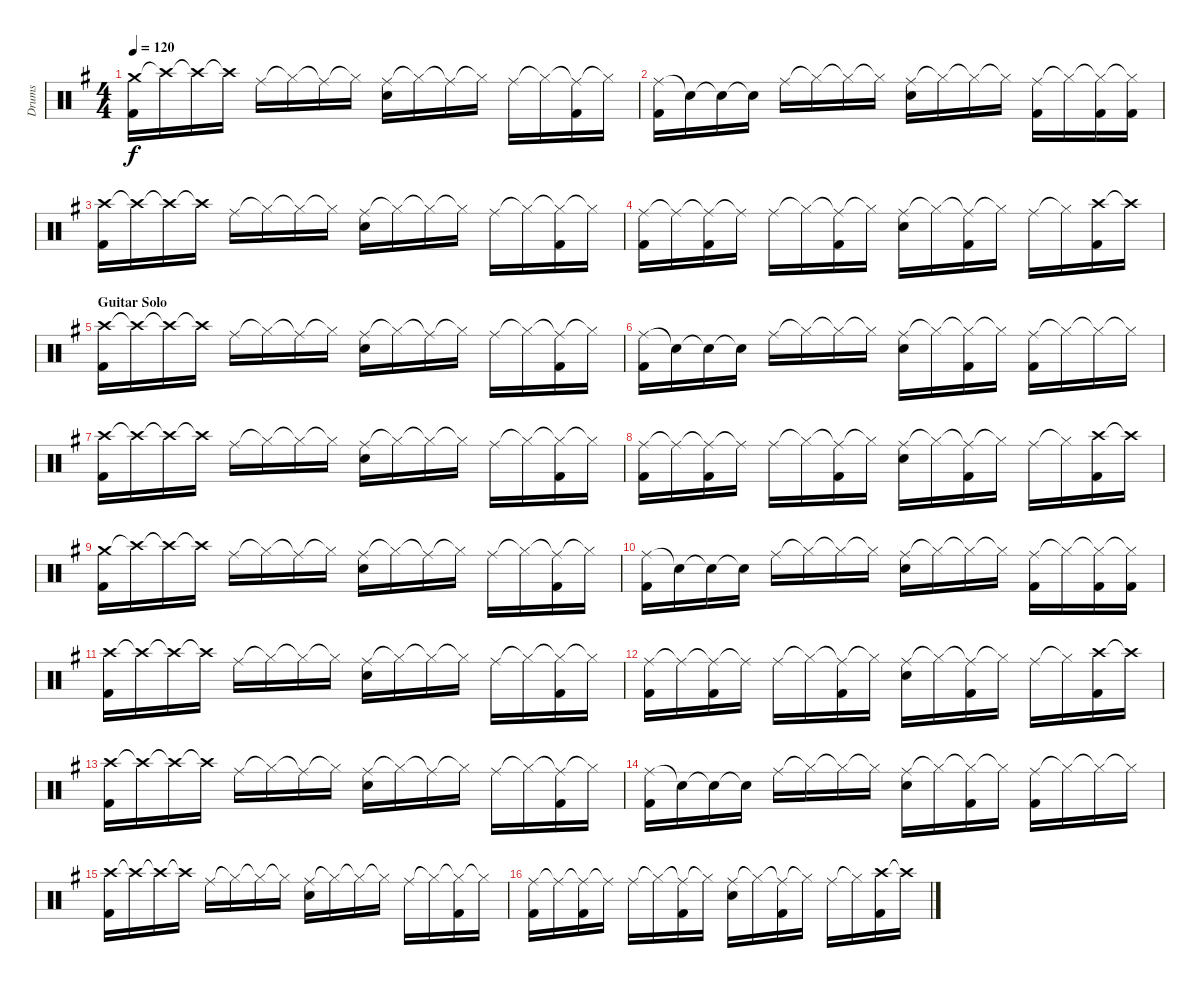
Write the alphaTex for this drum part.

\track ("Drums" "Drums") {instrument percussion}
\staff {score}
\articulation defaults
\ts (4 4)
\tempo 120
\clef neutral
\ks g
("Crash medium (hit)" "Kick (hit) 2").16{dy f} "Crash high (hit)"{t}.16 "Crash high (hit)"{t}.16 "Crash high (hit)"{t}.16 "Ride (middle)".16 "Hi-Hat (closed)"{t}.16 "Ride (middle)"{t}.16 "Hi-Hat (closed)"{t}.16 ("Ride (middle)" "Snare (hit) 2").16 "Hi-Hat (closed)"{t}.16 "Ride (middle)"{t}.16 "Hi-Hat (closed)"{t}.16 "Ride (middle)".16 "Hi-Hat (closed)"{t}.16 ("Ride (middle)"{t} "Kick (hit) 2").16 "Hi-Hat (closed)"{t}.16 |
("Ride (middle)" "Kick (hit) 2").16 "Snare (hit)"{t}.16 "Snare (hit)"{t}.16 "Snare (hit)"{t}.16 "Ride (middle)".16 "Hi-Hat (closed)"{t}.16 "Hi-Hat (closed)"{t}.16 "Hi-Hat (closed)"{t}.16 ("Ride (middle)" "Snare (hit) 2").16 "Hi-Hat (closed)"{t}.16 "Hi-Hat (closed)"{t}.16 "Hi-Hat (closed)"{t}.16 ("Ride (middle)" "Kick (hit) 2").16 "Hi-Hat (closed)"{t}.16 ("Hi-Hat (closed)"{t} "Kick (hit) 2").16 ("Hi-Hat (closed)"{t} "Kick (hit) 2").16 |
("Crash high (hit)" "Kick (hit) 2").16 "Crash high (hit)"{t}.16 "Crash high (hit)"{t}.16 "Crash high (hit)"{t}.16 "Ride (middle)".16 "Hi-Hat (closed)"{t}.16 "Hi-Hat (closed)"{t}.16 "Hi-Hat (closed)"{t}.16 ("Ride (middle)" "Snare (hit) 2").16 "Hi-Hat (closed)"{t}.16 "Hi-Hat (closed)"{t}.16 "Hi-Hat (closed)"{t}.16 "Ride (middle)".16 "Hi-Hat (closed)"{t}.16 ("Hi-Hat (closed)"{t} "Kick (hit) 2").16 "Hi-Hat (closed)"{t}.16 |
("Ride (middle)" "Kick (hit) 2").16 "Ride (middle)"{t}.16 ("Ride (middle)"{t} "Kick (hit) 2").16 "Ride (middle)"{t}.16 "Ride (middle)".16 "Hi-Hat (closed)"{t}.16 ("Ride (middle)"{t} "Kick (hit) 2").16 "Hi-Hat (closed)"{t}.16 ("Ride (middle)" "Snare (hit) 2").16 "Hi-Hat (closed)"{t}.16 ("Ride (middle)"{t} "Kick (hit) 2").16 "Hi-Hat (closed)"{t}.16 "Ride (middle)".16 "Hi-Hat (closed)"{t}.16 ("Crash high (hit)" "Kick (hit) 2").16 "Crash high (hit)"{t}.16 |
\section ("" "Guitar Solo")
("Crash high (hit)" "Kick (hit) 2").16 "Crash high (hit)"{t}.16 "Crash high (hit)"{t}.16 "Crash high (hit)"{t}.16 "Ride (middle)".16 "Hi-Hat (closed)"{t}.16 "Ride (middle)"{t}.16 "Hi-Hat (closed)"{t}.16 ("Ride (middle)" "Snare (hit) 2").16 "Hi-Hat (closed)"{t}.16 "Ride (middle)"{t}.16 "Hi-Hat (closed)"{t}.16 "Ride (middle)".16 "Hi-Hat (closed)"{t}.16 ("Ride (middle)"{t} "Kick (hit) 2").16 "Hi-Hat (closed)"{t}.16 |
("Ride (middle)" "Kick (hit) 2").16 "Snare (hit)"{t}.16 "Snare (hit)"{t}.16 "Snare (hit)"{t}.16 "Ride (middle)".16 "Hi-Hat (closed)"{t}.16 "Hi-Hat (closed)"{t}.16 "Hi-Hat (closed)"{t}.16 ("Ride (middle)" "Snare (hit) 2").16 "Hi-Hat (closed)"{t}.16 ("Hi-Hat (closed)"{t} "Kick (hit) 2").16 "Hi-Hat (closed)"{t}.16 ("Ride (middle)" "Kick (hit) 2").16 "Hi-Hat (closed)"{t}.16 "Hi-Hat (closed)"{t}.16 "Hi-Hat (closed)"{t}.16 |
("Crash high (hit)" "Kick (hit) 2").16 "Crash high (hit)"{t}.16 "Crash high (hit)"{t}.16 "Crash high (hit)"{t}.16 "Ride (middle)".16 "Hi-Hat (closed)"{t}.16 "Hi-Hat (closed)"{t}.16 "Hi-Hat (closed)"{t}.16 ("Ride (middle)" "Snare (hit) 2").16 "Hi-Hat (closed)"{t}.16 "Hi-Hat (closed)"{t}.16 "Hi-Hat (closed)"{t}.16 "Ride (middle)".16 "Hi-Hat (closed)"{t}.16 ("Hi-Hat (closed)"{t} "Kick (hit) 2").16 "Hi-Hat (closed)"{t}.16 |
("Ride (middle)" "Kick (hit) 2").16 "Ride (middle)"{t}.16 ("Ride (middle)"{t} "Kick (hit) 2").16 "Ride (middle)"{t}.16 "Ride (middle)".16 "Hi-Hat (closed)"{t}.16 ("Ride (middle)"{t} "Kick (hit) 2").16 "Hi-Hat (closed)"{t}.16 ("Ride (middle)" "Snare (hit) 2").16 "Hi-Hat (closed)"{t}.16 ("Ride (middle)"{t} "Kick (hit) 2").16 "Hi-Hat (closed)"{t}.16 "Ride (middle)".16 "Hi-Hat (closed)"{t}.16 ("Crash high (hit)" "Kick (hit) 2").16 "Crash high (hit)"{t}.16 |
("Crash medium (hit)" "Kick (hit) 2").16 "Crash high (hit)"{t}.16 "Crash high (hit)"{t}.16 "Crash high (hit)"{t}.16 "Ride (middle)".16 "Hi-Hat (closed)"{t}.16 "Ride (middle)"{t}.16 "Hi-Hat (closed)"{t}.16 ("Ride (middle)" "Snare (hit) 2").16 "Hi-Hat (closed)"{t}.16 "Ride (middle)"{t}.16 "Hi-Hat (closed)"{t}.16 "Ride (middle)".16 "Hi-Hat (closed)"{t}.16 ("Ride (middle)"{t} "Kick (hit) 2").16 "Hi-Hat (closed)"{t}.16 |
("Ride (middle)" "Kick (hit) 2").16 "Snare (hit)"{t}.16 "Snare (hit)"{t}.16 "Snare (hit)"{t}.16 "Ride (middle)".16 "Hi-Hat (closed)"{t}.16 "Hi-Hat (closed)"{t}.16 "Hi-Hat (closed)"{t}.16 ("Ride (middle)" "Snare (hit) 2").16 "Hi-Hat (closed)"{t}.16 "Hi-Hat (closed)"{t}.16 "Hi-Hat (closed)"{t}.16 ("Ride (middle)" "Kick (hit) 2").16 "Hi-Hat (closed)"{t}.16 ("Hi-Hat (closed)"{t} "Kick (hit) 2").16 ("Hi-Hat (closed)"{t} "Kick (hit) 2").16 |
("Crash high (hit)" "Kick (hit) 2").16 "Crash high (hit)"{t}.16 "Crash high (hit)"{t}.16 "Crash high (hit)"{t}.16 "Ride (middle)".16 "Hi-Hat (closed)"{t}.16 "Hi-Hat (closed)"{t}.16 "Hi-Hat (closed)"{t}.16 ("Ride (middle)" "Snare (hit) 2").16 "Hi-Hat (closed)"{t}.16 "Hi-Hat (closed)"{t}.16 "Hi-Hat (closed)"{t}.16 "Ride (middle)".16 "Hi-Hat (closed)"{t}.16 ("Hi-Hat (closed)"{t} "Kick (hit) 2").16 "Hi-Hat (closed)"{t}.16 |
("Ride (middle)" "Kick (hit) 2").16 "Ride (middle)"{t}.16 ("Ride (middle)"{t} "Kick (hit) 2").16 "Ride (middle)"{t}.16 "Ride (middle)".16 "Hi-Hat (closed)"{t}.16 ("Ride (middle)"{t} "Kick (hit) 2").16 "Hi-Hat (closed)"{t}.16 ("Ride (middle)" "Snare (hit) 2").16 "Hi-Hat (closed)"{t}.16 ("Ride (middle)"{t} "Kick (hit) 2").16 "Hi-Hat (closed)"{t}.16 "Ride (middle)".16 "Hi-Hat (closed)"{t}.16 ("Crash high (hit)" "Kick (hit) 2").16 "Crash high (hit)"{t}.16 |
("Crash high (hit)" "Kick (hit) 2").16 "Crash high (hit)"{t}.16 "Crash high (hit)"{t}.16 "Crash high (hit)"{t}.16 "Ride (middle)".16 "Hi-Hat (closed)"{t}.16 "Ride (middle)"{t}.16 "Hi-Hat (closed)"{t}.16 ("Ride (middle)" "Snare (hit) 2").16 "Hi-Hat (closed)"{t}.16 "Ride (middle)"{t}.16 "Hi-Hat (closed)"{t}.16 "Ride (middle)".16 "Hi-Hat (closed)"{t}.16 ("Ride (middle)"{t} "Kick (hit) 2").16 "Hi-Hat (closed)"{t}.16 |
("Ride (middle)" "Kick (hit) 2").16 "Snare (hit)"{t}.16 "Snare (hit)"{t}.16 "Snare (hit)"{t}.16 "Ride (middle)".16 "Hi-Hat (closed)"{t}.16 "Hi-Hat (closed)"{t}.16 "Hi-Hat (closed)"{t}.16 ("Ride (middle)" "Snare (hit) 2").16 "Hi-Hat (closed)"{t}.16 ("Hi-Hat (closed)"{t} "Kick (hit) 2").16 "Hi-Hat (closed)"{t}.16 ("Ride (middle)" "Kick (hit) 2").16 "Hi-Hat (closed)"{t}.16 "Hi-Hat (closed)"{t}.16 "Hi-Hat (closed)"{t}.16 |
("Crash high (hit)" "Kick (hit) 2").16 "Crash high (hit)"{t}.16 "Crash high (hit)"{t}.16 "Crash high (hit)"{t}.16 "Ride (middle)".16 "Hi-Hat (closed)"{t}.16 "Hi-Hat (closed)"{t}.16 "Hi-Hat (closed)"{t}.16 ("Ride (middle)" "Snare (hit) 2").16 "Hi-Hat (closed)"{t}.16 "Hi-Hat (closed)"{t}.16 "Hi-Hat (closed)"{t}.16 "Ride (middle)".16 "Hi-Hat (closed)"{t}.16 ("Hi-Hat (closed)"{t} "Kick (hit) 2").16 "Hi-Hat (closed)"{t}.16 |
("Ride (middle)" "Kick (hit) 2").16 "Ride (middle)"{t}.16 ("Ride (middle)"{t} "Kick (hit) 2").16 "Ride (middle)"{t}.16 "Ride (middle)".16 "Hi-Hat (closed)"{t}.16 ("Ride (middle)"{t} "Kick (hit) 2").16 "Hi-Hat (closed)"{t}.16 ("Ride (middle)" "Snare (hit) 2").16 "Hi-Hat (closed)"{t}.16 ("Ride (middle)"{t} "Kick (hit) 2").16 "Hi-Hat (closed)"{t}.16 "Ride (middle)".16 "Hi-Hat (closed)"{t}.16 ("Crash high (hit)" "Kick (hit) 2").16 "Crash high (hit)"{t}.16
